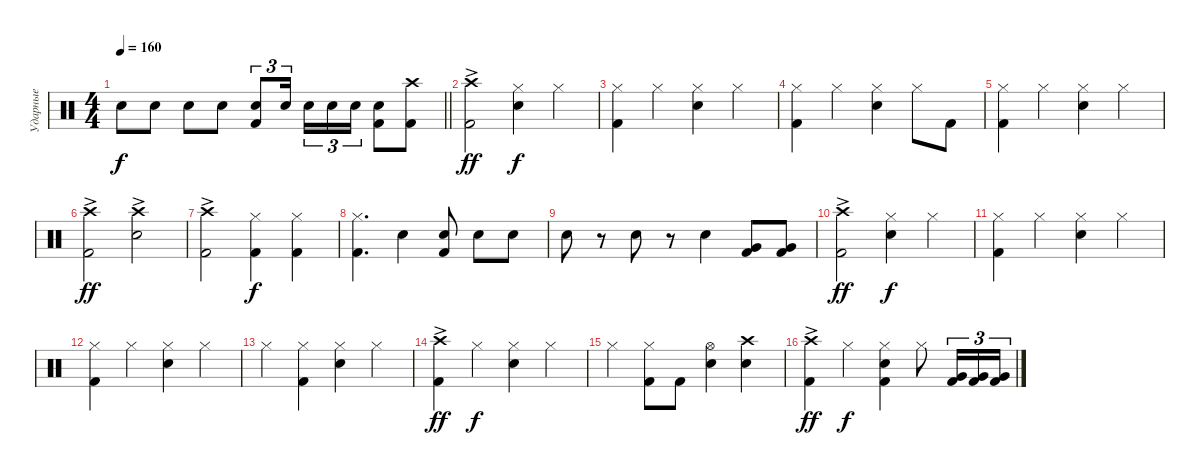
\track ("Ударные" "Ударные") {instrument percussion}
\staff
\articulation defaults
\ts (4 4)
\tempo 160
\clef neutral
\barLineRight lightlight
\ks c "Snare (hit) 2".8{dy f} "Snare (hit) 2".8 "Snare (hit) 2".8 "Snare (hit) 2".8
("Kick (hit) 2" "Snare (hit) 2").8{tu (3 2)} "Snare (hit) 2".16{tu (3 2) beam splitsecondary} "Snare (hit) 2".16{tu (3 2)} "Snare (hit) 2".16{tu (3 2)} "Snare (hit) 2".16{tu (3 2)} ("Kick (hit) 2" "Snare (hit) 2").8 ("Kick (hit) 2" "Crash high (hit)").8 |
("Kick (hit) 2" "Crash high (hit)"{ac}).2{dy ff} ("Snare (hit) 2" "Hi-Hat (closed)").4{dy f} "Hi-Hat (closed)".4 |
("Kick (hit) 2" "Hi-Hat (closed)").4 "Hi-Hat (closed)".4 ("Snare (hit) 2" "Hi-Hat (closed)").4 "Hi-Hat (closed)".4 |
("Kick (hit) 2" "Hi-Hat (closed)").4 "Hi-Hat (closed)".4 ("Snare (hit) 2" "Hi-Hat (closed)").4 "Hi-Hat (closed)".8 "Kick (hit) 2".8 |
("Kick (hit) 2" "Hi-Hat (closed)").4 "Hi-Hat (closed)".4 ("Snare (hit) 2" "Hi-Hat (closed)").4 "Hi-Hat (closed)".4 |
("Kick (hit) 2" "Crash high (hit)"{ac}).2{dy ff} ("Snare (hit) 2" "Crash high (hit)"{ac}).2 |
("Kick (hit) 2" "Crash high (hit)"{ac}).2 ("Kick (hit) 2" "Hi-Hat (closed)").4{dy f} ("Kick (hit) 2" "Hi-Hat (closed)").4 |
("Kick (hit) 2" "Hi-Hat (closed)").4{d} "Snare (hit) 2".4 ("Kick (hit) 2" "Electric Snare (hit)").8 "Snare (hit) 2".8 "Snare (hit) 2".8 |
"Snare (hit) 2".8 r.8 "Snare (hit) 2".8 r.8 "Snare (hit) 2".4 ("Kick (hit) 2" "Very Low Tom (hit)").8 ("Kick (hit) 2" "Very Low Tom (hit)").8 |
("Kick (hit) 2" "Crash high (hit)"{ac}).2{dy ff} ("Snare (hit) 2" "Hi-Hat (closed)").4{dy f} "Hi-Hat (closed)".4 |
("Kick (hit) 2" "Hi-Hat (closed)").4 "Hi-Hat (closed)".4 ("Snare (hit) 2" "Hi-Hat (closed)").4 "Hi-Hat (closed)".4 |
("Kick (hit) 2" "Hi-Hat (closed)").4 "Hi-Hat (closed)".4 ("Snare (hit) 2" "Hi-Hat (closed)").4 "Hi-Hat (closed)".4 |
"Hi-Hat (closed)".4 ("Kick (hit) 2" "Hi-Hat (closed)").4 ("Snare (hit) 2" "Hi-Hat (closed)").4 "Hi-Hat (closed)".4 |
("Kick (hit) 2" "Crash high (hit)"{ac}).4{dy ff} "Hi-Hat (closed)".4{dy f} ("Snare (hit) 2" "Hi-Hat (closed)").4 "Hi-Hat (closed)".4 |
"Hi-Hat (closed)".4 ("Kick (hit) 2" "Hi-Hat (closed)").8 "Kick (hit) 2".8 ("Snare (hit) 2" "Hi-Hat (open)").4 ("Snare (hit) 2" "Crash high (hit)").4 |
("Kick (hit) 2" "Crash high (hit)"{ac}).4{dy ff} "Hi-Hat (closed)".4{dy f} ("Kick (hit) 2" "Snare (hit) 2" "Hi-Hat (closed)").4 "Hi-Hat (closed)".8 ("Kick (hit) 2" "Very Low Tom (hit)").16{tu (3 2)} ("Kick (hit) 2" "Very Low Tom (hit)").16{tu (3 2)} ("Kick (hit) 2" "Very Low Tom (hit)").16{tu (3 2)}
